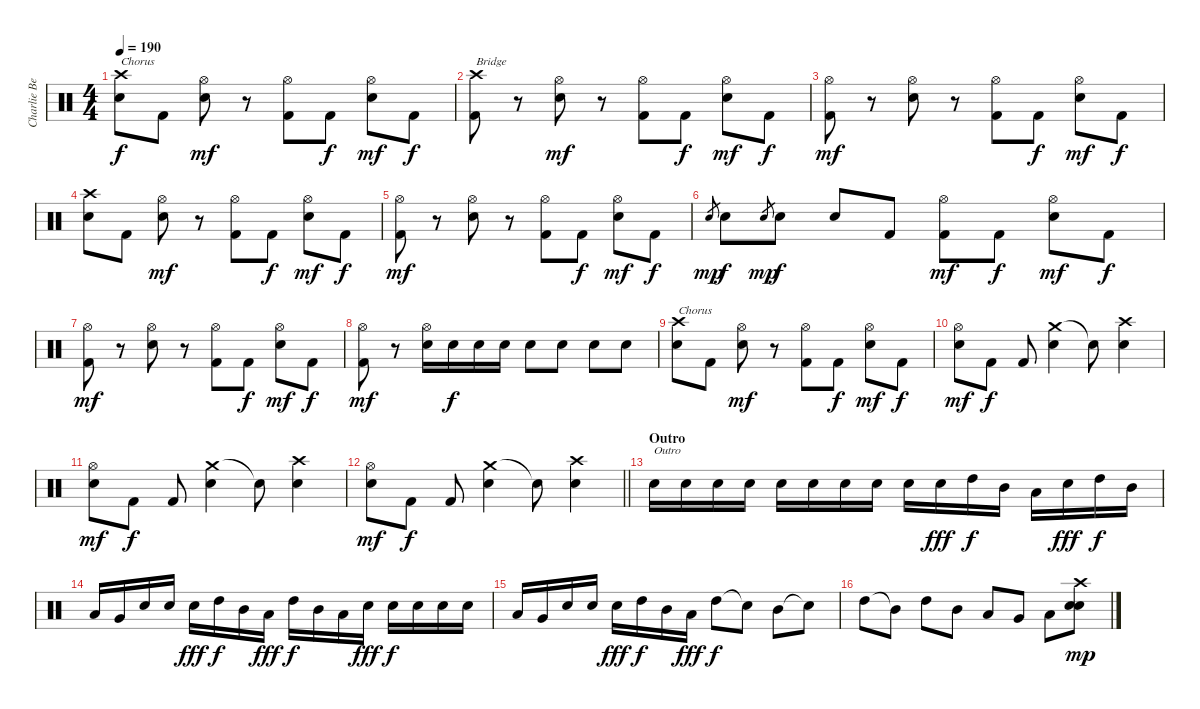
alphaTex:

\track ("Charlie Benante" "Charlie Be") {instrument percussion}
\staff {score}
\articulation defaults
\ts (4 4)
\tempo 190
\clef neutral
\ks c
("Crash high (hit)" "Electric Snare (hit)").8{txt "Chorus" dy f} "Kick (hit) 2".8 ("Hi-Hat (open)" "Electric Snare (hit)").8{dy mf} r.8 ("Hi-Hat (open)" "Kick (hit) 2").8 "Kick (hit) 2".8{dy f} ("Hi-Hat (open)" "Electric Snare (hit)").8{dy mf} "Kick (hit) 2".8{dy f} |
("Crash high (hit)" "Kick (hit) 2").8{txt "Bridge"} r.8 ("Hi-Hat (open)" "Electric Snare (hit)").8{dy mf} r.8 ("Hi-Hat (open)" "Kick (hit) 2").8 "Kick (hit) 2".8{dy f} ("Hi-Hat (open)" "Electric Snare (hit)").8{dy mf} "Kick (hit) 2".8{dy f} |
("Hi-Hat (open)" "Kick (hit) 2").8{dy mf} r.8 ("Hi-Hat (open)" "Electric Snare (hit)").8 r.8 ("Hi-Hat (open)" "Kick (hit) 2").8 "Kick (hit) 2".8{dy f} ("Hi-Hat (open)" "Electric Snare (hit)").8{dy mf} "Kick (hit) 2".8{dy f} |
("Crash high (hit)" "Electric Snare (hit)").8 "Kick (hit) 2".8 ("Hi-Hat (open)" "Electric Snare (hit)").8{dy mf} r.8 ("Hi-Hat (open)" "Kick (hit) 2").8 "Kick (hit) 2".8{dy f} ("Hi-Hat (open)" "Electric Snare (hit)").8{dy mf} "Kick (hit) 2".8{dy f} |
("Hi-Hat (open)" "Kick (hit) 2").8{dy mf} r.8 ("Hi-Hat (open)" "Electric Snare (hit)").8 r.8 ("Hi-Hat (open)" "Kick (hit) 2").8 "Kick (hit) 2".8{dy f} ("Hi-Hat (open)" "Electric Snare (hit)").8{dy mf} "Kick (hit) 2".8{dy f} |
"Snare (hit) 2".8{gr dy mp} "Electric Snare (hit)".8{dy f} "Snare (hit) 2".8{gr dy mp} "Electric Snare (hit)".8{dy f} "Electric Snare (hit)".8 "Kick (hit) 2".8 ("Hi-Hat (open)" "Kick (hit) 2").8{dy mf} "Kick (hit) 2".8{dy f} ("Hi-Hat (open)" "Electric Snare (hit)").8{dy mf} "Kick (hit) 2".8{dy f} |
("Hi-Hat (open)" "Kick (hit) 2").8{dy mf} r.8 ("Hi-Hat (open)" "Electric Snare (hit)").8 r.8 ("Hi-Hat (open)" "Kick (hit) 2").8 "Kick (hit) 2".8{dy f} ("Hi-Hat (open)" "Electric Snare (hit)").8{dy mf} "Kick (hit) 2".8{dy f} |
("Hi-Hat (open)" "Kick (hit) 2").8{dy mf} r.8 ("Hi-Hat (open)" "Electric Snare (hit)").16 "Electric Snare (hit)".16{dy f} "Electric Snare (hit)".16 "Electric Snare (hit)".16 "Electric Snare (hit)".8 "Electric Snare (hit)".8 "Electric Snare (hit)".8 "Electric Snare (hit)".8 |
("Crash high (hit)" "Electric Snare (hit)").8{txt "Chorus"} "Kick (hit) 2".8 ("Hi-Hat (open)" "Electric Snare (hit)").8{dy mf} r.8 ("Hi-Hat (open)" "Kick (hit) 2").8 "Kick (hit) 2".8{dy f} ("Hi-Hat (open)" "Electric Snare (hit)").8{dy mf} "Kick (hit) 2".8{dy f} |
("Hi-Hat (open)" "Electric Snare (hit)").8{dy mf} "Kick (hit) 2".8{dy f} "Kick (hit) 2".8 ("Crash medium (hit)" "Electric Snare (hit)").4 "Snare (hit)"{t}.8 ("Crash high (hit)" "Electric Snare (hit)").4 |
("Hi-Hat (open)" "Electric Snare (hit)").8{dy mf} "Kick (hit) 2".8{dy f} "Kick (hit) 2".8 ("Crash medium (hit)" "Electric Snare (hit)").4 "Snare (hit)"{t}.8 ("Crash high (hit)" "Electric Snare (hit)").4 |
\barLineRight lightlight
("Hi-Hat (open)" "Electric Snare (hit)").8{dy mf} "Kick (hit) 2".8{dy f} "Kick (hit) 2".8 ("Crash medium (hit)" "Electric Snare (hit)").4 "Snare (hit)"{t}.8 ("Crash high (hit)" "Electric Snare (hit)").4 |
\section ("" "Outro")
"Electric Snare (hit)".16{txt "Outro"} "Electric Snare (hit)".16 "Electric Snare (hit)".16 "Electric Snare (hit)".16 "Electric Snare (hit)".16 "Electric Snare (hit)".16 "Electric Snare (hit)".16 "Electric Snare (hit)".16 "Electric Snare (hit)".16 "Snare (hit) 2".16{dy fff} "High Tom (hit)".16{dy f} "Mid Tom (hit)".16 "Low Tom (hit)".16 "Snare (hit) 2".16{dy fff} "High Tom (hit)".16{dy f} "Mid Tom (hit)".16 |
"Low Tom (hit)".16 "Very Low Tom (hit)".16 "Electric Snare (hit)".16 "Electric Snare (hit)".16 "Snare (hit) 2".16{dy fff} "High Tom (hit)".16{dy f} "Mid Tom (hit)".16 "Low Tom (hit)".16{dy fff} "High Tom (hit)".16{dy f} "Mid Tom (hit)".16 "Low Tom (hit)".16 "Snare (hit) 2".16{dy fff} "Electric Snare (hit)".16{dy f} "Electric Snare (hit)".16 "Electric Snare (hit)".16 "Electric Snare (hit)".16 |
"Low Tom (hit)".16 "Very Low Tom (hit)".16 "Electric Snare (hit)".16 "Electric Snare (hit)".16 "Snare (hit) 2".16{dy fff} "High Tom (hit)".16{dy f} "Mid Tom (hit)".16 "Low Tom (hit)".16{dy fff} "High Tom (hit)".8{dy f} "Snare (hit)"{t}.8 "Mid Tom (hit)".8 "Snare (hit)"{t}.8 |
"High Tom (hit)".8 "Mid Tom (hit)"{t}.8 "High Tom (hit)".8 "Mid Tom (hit)".8 "Low Tom (hit)".8 "Very Low Tom (hit)".8 "Low Floor Tom (hit)".8 ("Crash high (hit)" "Snare (hit) 2" "Electric Snare (hit)").8{dy mp}
